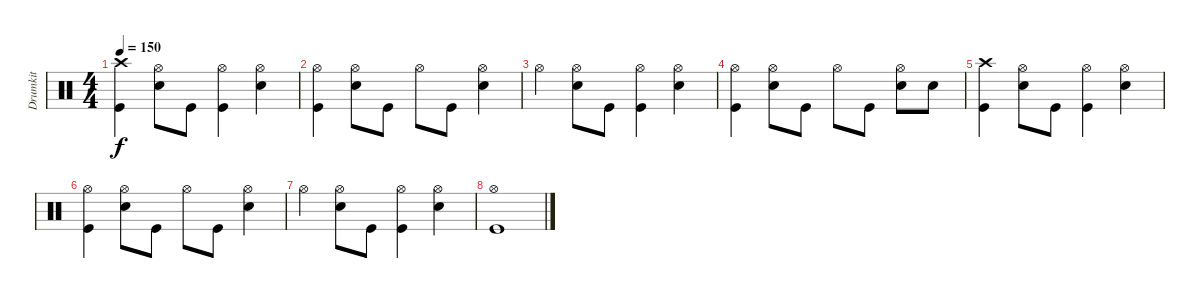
\track ("Drumkit" "Drumkit") {instrument percussion}
\staff {score}
\articulation defaults
\ts (4 4)
\tempo 150
\clef neutral
\ks c
("Crash high (hit)" "Kick (hit)").4{dy f} ("Hi-Hat (open)" "Snare (hit) 2").8 "Kick (hit)".8 ("Hi-Hat (open)" "Kick (hit)").4 ("Hi-Hat (open)" "Snare (hit) 2").4 |
("Hi-Hat (open)" "Kick (hit)").4 ("Hi-Hat (open)" "Snare (hit) 2").8 "Kick (hit)".8 "Hi-Hat (open)".8 "Kick (hit)".8 ("Hi-Hat (open)" "Snare (hit) 2").4 |
"Hi-Hat (open)".4 ("Hi-Hat (open)" "Snare (hit) 2").8 "Kick (hit)".8 ("Hi-Hat (open)" "Kick (hit)").4 ("Hi-Hat (open)" "Snare (hit) 2").4 |
("Hi-Hat (open)" "Kick (hit)").4 ("Hi-Hat (open)" "Snare (hit) 2").8 "Kick (hit)".8 "Hi-Hat (open)".8 "Kick (hit)".8 ("Hi-Hat (open)" "Snare (hit) 2").8 "Snare (hit) 2".8 |
("Crash high (hit)" "Kick (hit)").4 ("Hi-Hat (open)" "Snare (hit) 2").8 "Kick (hit)".8 ("Hi-Hat (open)" "Kick (hit)").4 ("Hi-Hat (open)" "Snare (hit) 2").4 |
("Hi-Hat (open)" "Kick (hit)").4 ("Hi-Hat (open)" "Snare (hit) 2").8 "Kick (hit)".8 "Hi-Hat (open)".8 "Kick (hit)".8 ("Hi-Hat (open)" "Snare (hit) 2").4 |
"Hi-Hat (open)".4 ("Hi-Hat (open)" "Snare (hit) 2").8 "Kick (hit)".8 ("Hi-Hat (open)" "Kick (hit)").4 ("Hi-Hat (open)" "Snare (hit) 2").4 |
("Hi-Hat (open)" "Kick (hit)").1
